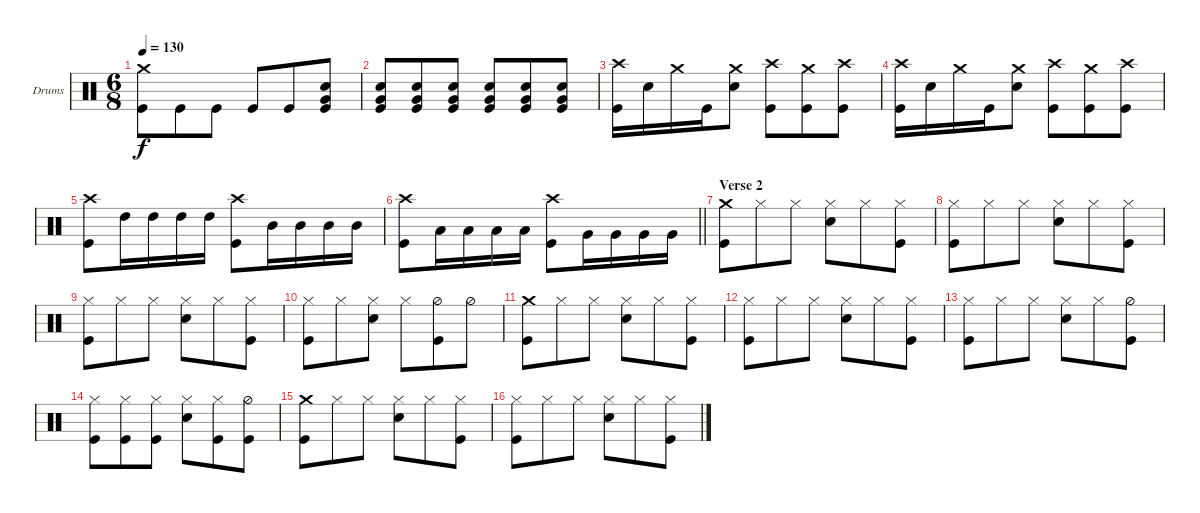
\bracketExtendMode groupsimilarinstruments
\firstSystemTrackNameOrientation horizontal
\otherSystemsTrackNameOrientation horizontal
\track ("drums (Anton Zulganov)" "Drums") {instrument percussion}
\staff {score}
\articulation defaults
\ts (6 8)
\tempo 130
\clef neutral
\ks aminor
("Crash medium (hit)" "Kick (hit)").8{dy f} "Kick (hit)".8 "Kick (hit)".8 "Kick (hit)".8 "Kick (hit)".8 ("Snare (hit) 2" "Kick (hit)" "Very Low Tom (hit)").8 |
("Snare (hit) 2" "Kick (hit)" "Very Low Tom (hit)").8 ("Snare (hit) 2" "Kick (hit)" "Very Low Tom (hit)").8 ("Snare (hit) 2" "Kick (hit)" "Very Low Tom (hit)").8 ("Snare (hit) 2" "Kick (hit)" "Very Low Tom (hit)").8 ("Snare (hit) 2" "Kick (hit)" "Very Low Tom (hit)").8 ("Snare (hit) 2" "Kick (hit)" "Very Low Tom (hit)").8 |
("Kick (hit)" "Crash high (hit)").16 "Snare (hit) 2".16 "Crash medium (hit)".16 "Kick (hit)".16 ("Snare (hit) 2" "Crash medium (hit)").8 ("Kick (hit)" "Crash high (hit)").8 ("Kick (hit)" "Crash medium (hit)").8 ("Kick (hit)" "Crash high (hit)").8 |
("Kick (hit)" "Crash high (hit)").16 "Snare (hit) 2".16 "Crash medium (hit)".16 "Kick (hit)".16 ("Snare (hit) 2" "Crash medium (hit)").8 ("Kick (hit)" "Crash high (hit)").8 ("Kick (hit)" "Crash medium (hit)").8 ("Kick (hit)" "Crash high (hit)").8 |
("Kick (hit)" "Crash high (hit)").8 "High Tom (hit)".16 "High Tom (hit)".16 "High Tom (hit)".16 "High Tom (hit)".16 ("Kick (hit)" "Crash high (hit)").8 "Mid Tom (hit)".16 "Mid Tom (hit)".16 "Mid Tom (hit)".16 "Mid Tom (hit)".16 |
\barLineRight lightlight
("Kick (hit)" "Crash high (hit)").8 "Low Tom (hit)".16 "Low Tom (hit)".16 "Low Tom (hit)".16 "Low Tom (hit)".16 ("Kick (hit)" "Crash high (hit)").8 "Very Low Tom (hit)".16 "Very Low Tom (hit)".16 "Very Low Tom (hit)".16 "Very Low Tom (hit)".16 |
\section ("" "Verse 2")
("Kick (hit)" "Crash medium (hit)").8 "Hi-Hat (closed)".8 "Hi-Hat (closed)".8 ("Snare (hit) 2" "Hi-Hat (closed)").8 "Hi-Hat (closed)".8 ("Kick (hit)" "Hi-Hat (closed)").8 |
("Kick (hit)" "Hi-Hat (closed)").8 "Hi-Hat (closed)".8 "Hi-Hat (closed)".8 ("Snare (hit) 2" "Hi-Hat (closed)").8 "Hi-Hat (closed)".8 ("Kick (hit)" "Hi-Hat (closed)").8 |
("Kick (hit)" "Hi-Hat (closed)").8 "Hi-Hat (closed)".8 "Hi-Hat (closed)".8 ("Snare (hit) 2" "Hi-Hat (closed)").8 "Hi-Hat (closed)".8 ("Kick (hit)" "Hi-Hat (closed)").8 |
("Kick (hit)" "Hi-Hat (closed)").8 "Hi-Hat (closed)".8 ("Snare (hit) 2" "Hi-Hat (closed)").8 "Hi-Hat (closed)".8 ("Kick (hit)" "Hi-Hat (half)").8 "Hi-Hat (half)".8 |
("Kick (hit)" "Crash medium (hit)").8 "Hi-Hat (closed)".8 "Hi-Hat (closed)".8 ("Snare (hit) 2" "Hi-Hat (closed)").8 "Hi-Hat (closed)".8 ("Kick (hit)" "Hi-Hat (closed)").8 |
("Kick (hit)" "Hi-Hat (closed)").8 "Hi-Hat (closed)".8 "Hi-Hat (closed)".8 ("Snare (hit) 2" "Hi-Hat (closed)").8 "Hi-Hat (closed)".8 ("Kick (hit)" "Hi-Hat (closed)").8 |
("Kick (hit)" "Hi-Hat (closed)").8 "Hi-Hat (closed)".8 "Hi-Hat (closed)".8 ("Snare (hit) 2" "Hi-Hat (closed)").8 "Hi-Hat (closed)".8 ("Kick (hit)" "Hi-Hat (half)").8 |
("Kick (hit)" "Hi-Hat (closed)").8 ("Kick (hit)" "Hi-Hat (closed)").8 ("Kick (hit)" "Hi-Hat (closed)").8 ("Snare (hit) 2" "Hi-Hat (closed)").8 ("Kick (hit)" "Hi-Hat (closed)").8 ("Kick (hit)" "Hi-Hat (half)").8 |
("Kick (hit)" "Crash medium (hit)").8 "Hi-Hat (closed)".8 "Hi-Hat (closed)".8 ("Snare (hit) 2" "Hi-Hat (closed)").8 "Hi-Hat (closed)".8 ("Kick (hit)" "Hi-Hat (closed)").8 |
("Kick (hit)" "Hi-Hat (closed)").8 "Hi-Hat (closed)".8 "Hi-Hat (closed)".8 ("Snare (hit) 2" "Hi-Hat (closed)").8 "Hi-Hat (closed)".8 ("Kick (hit)" "Hi-Hat (closed)").8
